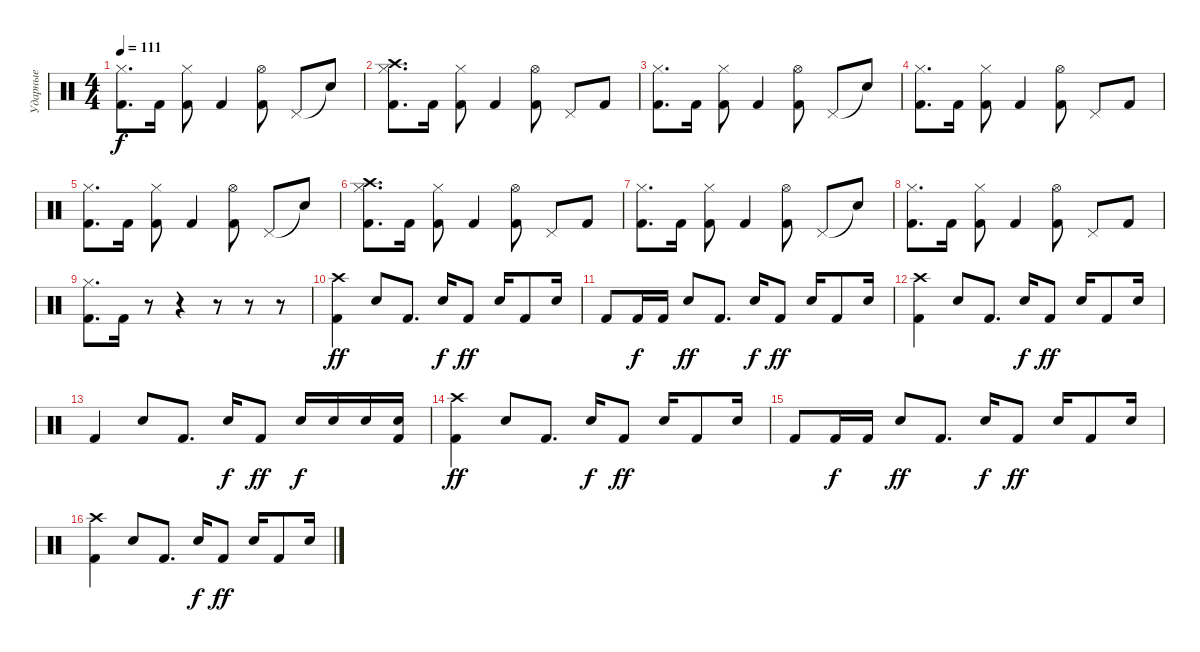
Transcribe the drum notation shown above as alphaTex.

\track ("Ударные" "Ударные") {instrument percussion}
\staff {score}
\articulation defaults
\ts (4 4)
\tempo 111
\clef neutral
\ks c
("Kick (hit) 2" "Hi-Hat (closed)").8{d dy f} "Kick (hit) 2".16 ("Kick (hit) 2" "Hi-Hat (closed)").8 "Kick (hit) 2".4 ("Kick (hit) 2" "Hi-Hat (open)").8 "Pedal Hi-Hat (hit)".8 "Snare (hit)"{t}.8 |
("Crash high (hit)" "Kick (hit) 2" "Hi-Hat (closed)").8{d} "Kick (hit) 2".16 ("Kick (hit) 2" "Hi-Hat (closed)").8 "Kick (hit) 2".4 ("Kick (hit) 2" "Hi-Hat (open)").8 "Pedal Hi-Hat (hit)".8 "Kick (hit) 2".8 |
("Kick (hit) 2" "Hi-Hat (closed)").8{d} "Kick (hit) 2".16 ("Kick (hit) 2" "Hi-Hat (closed)").8 "Kick (hit) 2".4 ("Kick (hit) 2" "Hi-Hat (open)").8 "Pedal Hi-Hat (hit)".8 "Snare (hit)"{t}.8 |
("Kick (hit) 2" "Hi-Hat (closed)").8{d} "Kick (hit) 2".16 ("Kick (hit) 2" "Hi-Hat (closed)").8 "Kick (hit) 2".4 ("Kick (hit) 2" "Hi-Hat (open)").8 "Pedal Hi-Hat (hit)".8 "Kick (hit) 2".8 |
("Kick (hit) 2" "Hi-Hat (closed)").8{d} "Kick (hit) 2".16 ("Kick (hit) 2" "Hi-Hat (closed)").8 "Kick (hit) 2".4 ("Kick (hit) 2" "Hi-Hat (open)").8 "Pedal Hi-Hat (hit)".8 "Snare (hit)"{t}.8 |
("Crash high (hit)" "Kick (hit) 2" "Hi-Hat (closed)").8{d} "Kick (hit) 2".16 ("Kick (hit) 2" "Hi-Hat (closed)").8 "Kick (hit) 2".4 ("Kick (hit) 2" "Hi-Hat (open)").8 "Pedal Hi-Hat (hit)".8 "Kick (hit) 2".8 |
("Kick (hit) 2" "Hi-Hat (closed)").8{d} "Kick (hit) 2".16 ("Kick (hit) 2" "Hi-Hat (closed)").8 "Kick (hit) 2".4 ("Kick (hit) 2" "Hi-Hat (open)").8 "Pedal Hi-Hat (hit)".8 "Snare (hit)"{t}.8 |
("Kick (hit) 2" "Hi-Hat (closed)").8{d} "Kick (hit) 2".16 ("Kick (hit) 2" "Hi-Hat (closed)").8 "Kick (hit) 2".4 ("Kick (hit) 2" "Hi-Hat (open)").8 "Pedal Hi-Hat (hit)".8 "Kick (hit) 2".8 |
("Kick (hit) 2" "Hi-Hat (closed)").8{d} "Kick (hit) 2".16 r.8 r.4 r.8 r.8 r.8 |
("Crash high (hit)" "Kick (hit) 2").4{dy ff} "Snare (hit) 2".8 "Kick (hit) 2".8{d} "Snare (hit) 2".16{dy f} "Kick (hit) 2".8{dy ff} "Snare (hit) 2".16 "Kick (hit) 2".8 "Snare (hit) 2".16 |
"Kick (hit) 2".8 "Kick (hit) 2".16{dy f} "Kick (hit) 2".16 "Snare (hit) 2".8{dy ff} "Kick (hit) 2".8{d} "Snare (hit) 2".16{dy f} "Kick (hit) 2".8{dy ff} "Snare (hit) 2".16 "Kick (hit) 2".8 "Snare (hit) 2".16 |
("Crash high (hit)" "Kick (hit) 2").4 "Snare (hit) 2".8 "Kick (hit) 2".8{d} "Snare (hit) 2".16{dy f} "Kick (hit) 2".8{dy ff} "Snare (hit) 2".16 "Kick (hit) 2".8 "Snare (hit) 2".16 |
"Kick (hit) 2".4 "Snare (hit) 2".8 "Kick (hit) 2".8{d} "Snare (hit) 2".16{dy f} "Kick (hit) 2".8{dy ff} "Electric Snare (hit)".16{dy f} "Electric Snare (hit)".16 "Snare (hit) 2".16 ("Snare (hit) 2" "Kick (hit) 2").16 |
("Crash high (hit)" "Kick (hit) 2").4{dy ff} "Snare (hit) 2".8 "Kick (hit) 2".8{d} "Snare (hit) 2".16{dy f} "Kick (hit) 2".8{dy ff} "Snare (hit) 2".16 "Kick (hit) 2".8 "Snare (hit) 2".16 |
"Kick (hit) 2".8 "Kick (hit) 2".16{dy f} "Kick (hit) 2".16 "Snare (hit) 2".8{dy ff} "Kick (hit) 2".8{d} "Snare (hit) 2".16{dy f} "Kick (hit) 2".8{dy ff} "Snare (hit) 2".16 "Kick (hit) 2".8 "Snare (hit) 2".16 |
("Crash high (hit)" "Kick (hit) 2").4 "Snare (hit) 2".8 "Kick (hit) 2".8{d} "Snare (hit) 2".16{dy f} "Kick (hit) 2".8{dy ff} "Snare (hit) 2".16 "Kick (hit) 2".8 "Snare (hit) 2".16
